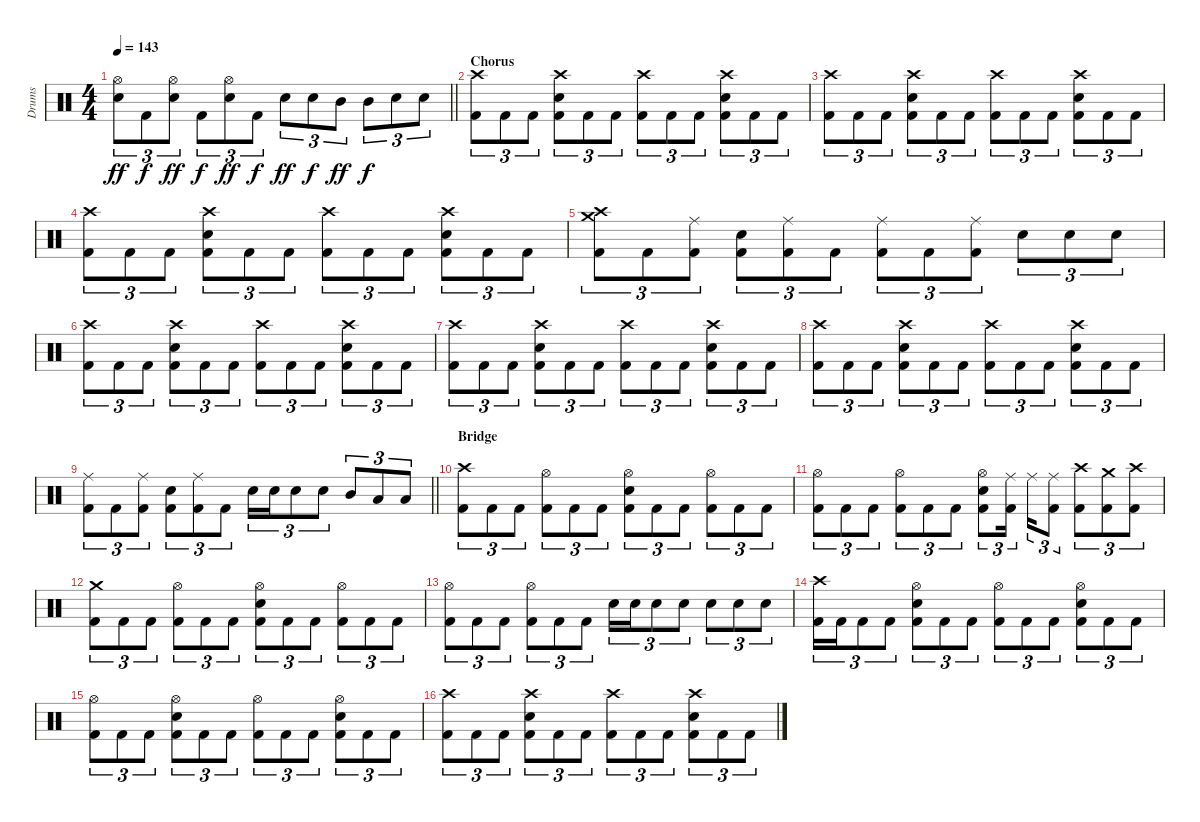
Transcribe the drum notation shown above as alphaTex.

\track ("Drums" "Drums") {instrument percussion}
\staff {score}
\articulation defaults
\ts (4 4)
\tempo 143
\clef neutral
\barLineRight lightlight
\ks c
("Hi-Hat (open)" "Snare (hit) 2").8{tu (3 2) dy ff} "Kick (hit) 2".8{tu (3 2) dy f} ("Hi-Hat (open)" "Snare (hit) 2").8{tu (3 2) dy ff} "Kick (hit) 2".8{tu (3 2) dy f} ("Hi-Hat (open)" "Snare (hit) 2").8{tu (3 2) dy ff} "Kick (hit) 2".8{tu (3 2) dy f} "Snare (hit) 2".8{tu (3 2) dy ff} "Snare (hit) 2".8{tu (3 2) dy f} "Mid Tom (hit)".8{tu (3 2) dy ff} "Mid Tom (hit)".8{tu (3 2) dy f} "Snare (hit) 2".8{tu (3 2)} "Snare (hit) 2".8{tu (3 2)} |
\section ("" "Chorus")
("Crash high (hit)" "Kick (hit) 2").8{tu (3 2)} "Kick (hit) 2".8{tu (3 2)} "Kick (hit) 2".8{tu (3 2)} ("Crash high (hit)" "Snare (hit) 2" "Kick (hit) 2").8{tu (3 2)} "Kick (hit) 2".8{tu (3 2)} "Kick (hit) 2".8{tu (3 2)} ("Crash high (hit)" "Kick (hit) 2").8{tu (3 2)} "Kick (hit) 2".8{tu (3 2)} "Kick (hit) 2".8{tu (3 2)} ("Crash high (hit)" "Snare (hit) 2" "Kick (hit) 2").8{tu (3 2)} "Kick (hit) 2".8{tu (3 2)} "Kick (hit) 2".8{tu (3 2)} |
("Crash high (hit)" "Kick (hit) 2").8{tu (3 2)} "Kick (hit) 2".8{tu (3 2)} "Kick (hit) 2".8{tu (3 2)} ("Crash high (hit)" "Snare (hit) 2" "Kick (hit) 2").8{tu (3 2)} "Kick (hit) 2".8{tu (3 2)} "Kick (hit) 2".8{tu (3 2)} ("Crash high (hit)" "Kick (hit) 2").8{tu (3 2)} "Kick (hit) 2".8{tu (3 2)} "Kick (hit) 2".8{tu (3 2)} ("Crash high (hit)" "Snare (hit) 2" "Kick (hit) 2").8{tu (3 2)} "Kick (hit) 2".8{tu (3 2)} "Kick (hit) 2".8{tu (3 2)} |
("Crash high (hit)" "Kick (hit) 2").8{tu (3 2)} "Kick (hit) 2".8{tu (3 2)} "Kick (hit) 2".8{tu (3 2)} ("Crash high (hit)" "Snare (hit) 2" "Kick (hit) 2").8{tu (3 2)} "Kick (hit) 2".8{tu (3 2)} "Kick (hit) 2".8{tu (3 2)} ("Crash high (hit)" "Kick (hit) 2").8{tu (3 2)} "Kick (hit) 2".8{tu (3 2)} "Kick (hit) 2".8{tu (3 2)} ("Crash high (hit)" "Snare (hit) 2" "Kick (hit) 2").8{tu (3 2)} "Kick (hit) 2".8{tu (3 2)} "Kick (hit) 2".8{tu (3 2)} |
("Crash high (hit)" "Crash medium (hit)" "Kick (hit) 2").8{tu (3 2)} "Kick (hit) 2".8{tu (3 2)} ("Ride (middle)" "Kick (hit) 2").8{tu (3 2)} ("Snare (hit) 2" "Kick (hit) 2").8{tu (3 2)} ("Ride (middle)" "Kick (hit) 2").8{tu (3 2)} "Kick (hit) 2".8{tu (3 2)} ("Ride (middle)" "Kick (hit) 2").8{tu (3 2)} "Kick (hit) 2".8{tu (3 2)} ("Ride (middle)" "Kick (hit) 2").8{tu (3 2)} "Snare (hit) 2".8{tu (3 2)} "Snare (hit) 2".8{tu (3 2)} "Snare (hit) 2".8{tu (3 2)} |
("Crash high (hit)" "Kick (hit) 2").8{tu (3 2)} "Kick (hit) 2".8{tu (3 2)} "Kick (hit) 2".8{tu (3 2)} ("Crash high (hit)" "Snare (hit) 2" "Kick (hit) 2").8{tu (3 2)} "Kick (hit) 2".8{tu (3 2)} "Kick (hit) 2".8{tu (3 2)} ("Crash high (hit)" "Kick (hit) 2").8{tu (3 2)} "Kick (hit) 2".8{tu (3 2)} "Kick (hit) 2".8{tu (3 2)} ("Crash high (hit)" "Snare (hit) 2" "Kick (hit) 2").8{tu (3 2)} "Kick (hit) 2".8{tu (3 2)} "Kick (hit) 2".8{tu (3 2)} |
("Crash high (hit)" "Kick (hit) 2").8{tu (3 2)} "Kick (hit) 2".8{tu (3 2)} "Kick (hit) 2".8{tu (3 2)} ("Crash high (hit)" "Snare (hit) 2" "Kick (hit) 2").8{tu (3 2)} "Kick (hit) 2".8{tu (3 2)} "Kick (hit) 2".8{tu (3 2)} ("Crash high (hit)" "Kick (hit) 2").8{tu (3 2)} "Kick (hit) 2".8{tu (3 2)} "Kick (hit) 2".8{tu (3 2)} ("Crash high (hit)" "Snare (hit) 2" "Kick (hit) 2").8{tu (3 2)} "Kick (hit) 2".8{tu (3 2)} "Kick (hit) 2".8{tu (3 2)} |
("Crash high (hit)" "Kick (hit) 2").8{tu (3 2)} "Kick (hit) 2".8{tu (3 2)} "Kick (hit) 2".8{tu (3 2)} ("Crash high (hit)" "Snare (hit) 2" "Kick (hit) 2").8{tu (3 2)} "Kick (hit) 2".8{tu (3 2)} "Kick (hit) 2".8{tu (3 2)} ("Crash high (hit)" "Kick (hit) 2").8{tu (3 2)} "Kick (hit) 2".8{tu (3 2)} "Kick (hit) 2".8{tu (3 2)} ("Crash high (hit)" "Snare (hit) 2" "Kick (hit) 2").8{tu (3 2)} "Kick (hit) 2".8{tu (3 2)} "Kick (hit) 2".8{tu (3 2)} |
\barLineRight lightlight
("Ride (middle)" "Kick (hit) 2").8{tu (3 2)} "Kick (hit) 2".8{tu (3 2)} ("Ride (middle)" "Kick (hit) 2").8{tu (3 2)} ("Snare (hit) 2" "Kick (hit) 2").8{tu (3 2)} ("Ride (middle)" "Kick (hit) 2").8{tu (3 2)} "Kick (hit) 2".8{tu (3 2)} "Snare (hit) 2".16{tu (3 2)} "Snare (hit) 2".16{tu (3 2)} "Snare (hit) 2".8{tu (3 2)} "Snare (hit) 2".8{tu (3 2)} "Mid Tom (hit)".8{tu (3 2)} "Low Tom (hit)".8{tu (3 2)} "Low Tom (hit)".8{tu (3 2)} |
\section ("" "Bridge")
("Crash high (hit)" "Kick (hit) 2").8{tu (3 2)} "Kick (hit) 2".8{tu (3 2)} "Kick (hit) 2".8{tu (3 2)} ("Hi-Hat (open)" "Kick (hit) 2").8{tu (3 2)} "Kick (hit) 2".8{tu (3 2)} "Kick (hit) 2".8{tu (3 2)} ("Hi-Hat (open)" "Snare (hit) 2" "Kick (hit) 2").8{tu (3 2)} "Kick (hit) 2".8{tu (3 2)} "Kick (hit) 2".8{tu (3 2)} ("Hi-Hat (open)" "Kick (hit) 2").8{tu (3 2)} "Kick (hit) 2".8{tu (3 2)} "Kick (hit) 2".8{tu (3 2)} |
("Hi-Hat (open)" "Kick (hit) 2").8{tu (3 2)} "Kick (hit) 2".8{tu (3 2)} "Kick (hit) 2".8{tu (3 2)} ("Hi-Hat (open)" "Kick (hit) 2").8{tu (3 2)} "Kick (hit) 2".8{tu (3 2)} "Kick (hit) 2".8{tu (3 2)} ("Hi-Hat (open)" "Snare (hit) 2" "Kick (hit) 2").8{tu (3 2)} ("Ride (middle)" "Kick (hit) 2").16{tu (3 2) beam splitsecondary} "Ride (middle)".16{tu (3 2)} ("Ride (middle)" "Kick (hit) 2").8{tu (3 2)} ("Crash high (hit)" "Kick (hit) 2").8{tu (3 2)} ("Crash medium (hit)" "Kick (hit) 2").8{tu (3 2)} ("Crash high (hit)" "Kick (hit) 2").8{tu (3 2)} |
("Crash medium (hit)" "Kick (hit) 2").8{tu (3 2)} "Kick (hit) 2".8{tu (3 2)} "Kick (hit) 2".8{tu (3 2)} ("Hi-Hat (open)" "Kick (hit) 2").8{tu (3 2)} "Kick (hit) 2".8{tu (3 2)} "Kick (hit) 2".8{tu (3 2)} ("Hi-Hat (open)" "Snare (hit) 2" "Kick (hit) 2").8{tu (3 2)} "Kick (hit) 2".8{tu (3 2)} "Kick (hit) 2".8{tu (3 2)} ("Hi-Hat (open)" "Kick (hit) 2").8{tu (3 2)} "Kick (hit) 2".8{tu (3 2)} "Kick (hit) 2".8{tu (3 2)} |
("Hi-Hat (open)" "Kick (hit) 2").8{tu (3 2)} "Kick (hit) 2".8{tu (3 2)} "Kick (hit) 2".8{tu (3 2)} ("Hi-Hat (open)" "Kick (hit) 2").8{tu (3 2)} "Kick (hit) 2".8{tu (3 2)} "Kick (hit) 2".8{tu (3 2)} "Snare (hit) 2".16{tu (3 2)} "Snare (hit) 2".16{tu (3 2)} "Snare (hit) 2".8{tu (3 2)} "Snare (hit) 2".8{tu (3 2)} "Snare (hit) 2".8{tu (3 2)} "Snare (hit) 2".8{tu (3 2)} "Snare (hit) 2".8{tu (3 2)} |
("Crash high (hit)" "Kick (hit) 2").16{tu (3 2)} "Kick (hit) 2".16{tu (3 2)} "Kick (hit) 2".8{tu (3 2)} "Kick (hit) 2".8{tu (3 2)} ("Hi-Hat (open)" "Snare (hit) 2" "Kick (hit) 2").8{tu (3 2)} "Kick (hit) 2".8{tu (3 2)} "Kick (hit) 2".8{tu (3 2)} ("Hi-Hat (open)" "Kick (hit) 2").8{tu (3 2)} "Kick (hit) 2".8{tu (3 2)} "Kick (hit) 2".8{tu (3 2)} ("Hi-Hat (open)" "Snare (hit) 2" "Kick (hit) 2").8{tu (3 2)} "Kick (hit) 2".8{tu (3 2)} "Kick (hit) 2".8{tu (3 2)} |
("Hi-Hat (open)" "Kick (hit) 2").8{tu (3 2)} "Kick (hit) 2".8{tu (3 2)} "Kick (hit) 2".8{tu (3 2)} ("Hi-Hat (open)" "Snare (hit) 2" "Kick (hit) 2").8{tu (3 2)} "Kick (hit) 2".8{tu (3 2)} "Kick (hit) 2".8{tu (3 2)} ("Hi-Hat (open)" "Kick (hit) 2").8{tu (3 2)} "Kick (hit) 2".8{tu (3 2)} "Kick (hit) 2".8{tu (3 2)} ("Hi-Hat (open)" "Snare (hit) 2" "Kick (hit) 2").8{tu (3 2)} "Kick (hit) 2".8{tu (3 2)} "Kick (hit) 2".8{tu (3 2)} |
("Crash high (hit)" "Kick (hit) 2").8{tu (3 2)} "Kick (hit) 2".8{tu (3 2)} "Kick (hit) 2".8{tu (3 2)} ("Crash high (hit)" "Snare (hit) 2" "Kick (hit) 2").8{tu (3 2)} "Kick (hit) 2".8{tu (3 2)} "Kick (hit) 2".8{tu (3 2)} ("Crash high (hit)" "Kick (hit) 2").8{tu (3 2)} "Kick (hit) 2".8{tu (3 2)} "Kick (hit) 2".8{tu (3 2)} ("Crash high (hit)" "Snare (hit) 2" "Kick (hit) 2").8{tu (3 2)} "Kick (hit) 2".8{tu (3 2)} "Kick (hit) 2".8{tu (3 2)}
